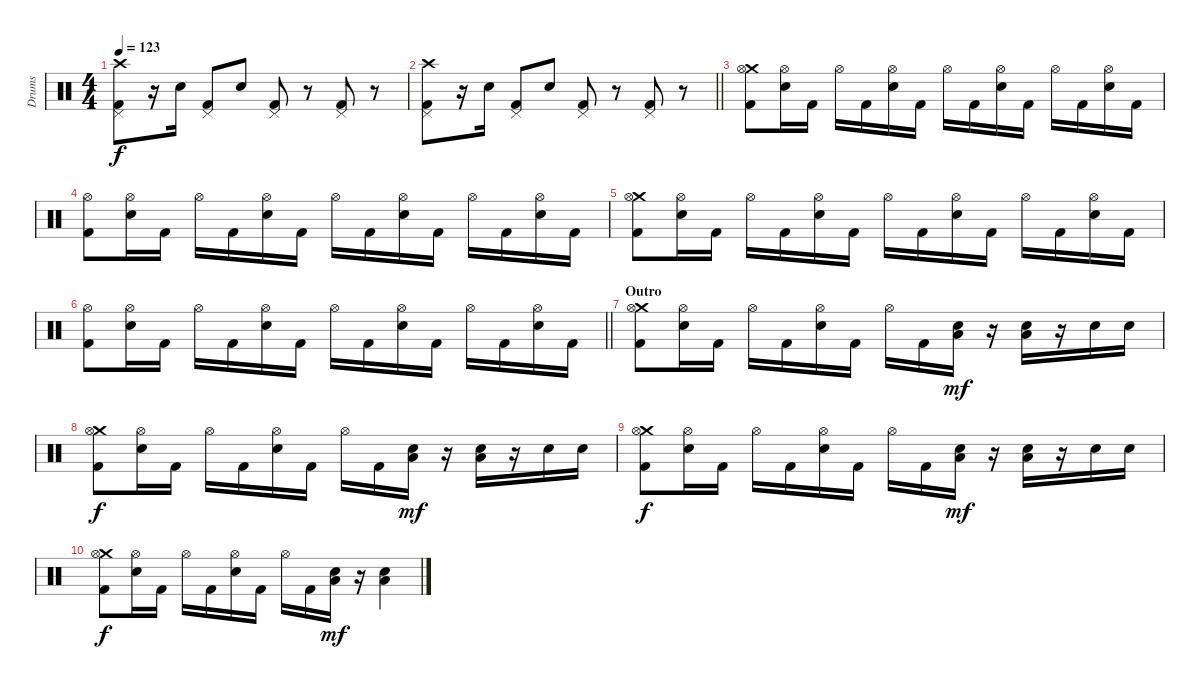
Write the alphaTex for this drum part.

\track ("Drums" "Drums") {instrument percussion}
\staff {score}
\articulation defaults
\ts (4 4)
\tempo 123
\clef neutral
\ks c
("Crash high (hit)" "Pedal Hi-Hat (hit)" "Kick (hit) 2").8{dy f} r.16 "Snare (hit) 2".16 ("Pedal Hi-Hat (hit)" "Kick (hit) 2").8 "Snare (hit) 2".8 ("Pedal Hi-Hat (hit)" "Kick (hit) 2").8 r.8 ("Pedal Hi-Hat (hit)" "Kick (hit) 2").8 r.8 |
\barLineRight lightlight
("Crash high (hit)" "Pedal Hi-Hat (hit)" "Kick (hit) 2").8 r.16 "Snare (hit) 2".16 ("Pedal Hi-Hat (hit)" "Kick (hit) 2").8 "Snare (hit) 2".8 ("Pedal Hi-Hat (hit)" "Kick (hit) 2").8 r.8 ("Pedal Hi-Hat (hit)" "Kick (hit) 2").8 r.8 |
("Crash medium (hit)" "Hi-Hat (open)" "Kick (hit) 2").8 ("Hi-Hat (open)" "Snare (hit) 2").16 "Kick (hit) 2".16 "Hi-Hat (open)".16 "Kick (hit) 2".16 ("Hi-Hat (open)" "Snare (hit) 2").16 "Kick (hit) 2".16 "Hi-Hat (open)".16 "Kick (hit) 2".16 ("Hi-Hat (open)" "Snare (hit) 2").16 "Kick (hit) 2".16 "Hi-Hat (open)".16 "Kick (hit) 2".16 ("Hi-Hat (open)" "Snare (hit) 2").16 "Kick (hit) 2".16 |
("Hi-Hat (open)" "Kick (hit) 2").8 ("Hi-Hat (open)" "Snare (hit) 2").16 "Kick (hit) 2".16 "Hi-Hat (open)".16 "Kick (hit) 2".16 ("Hi-Hat (open)" "Snare (hit) 2").16 "Kick (hit) 2".16 "Hi-Hat (open)".16 "Kick (hit) 2".16 ("Hi-Hat (open)" "Snare (hit) 2").16 "Kick (hit) 2".16 "Hi-Hat (open)".16 "Kick (hit) 2".16 ("Hi-Hat (open)" "Snare (hit) 2").16 "Kick (hit) 2".16 |
("Crash medium (hit)" "Hi-Hat (open)" "Kick (hit) 2").8 ("Hi-Hat (open)" "Snare (hit) 2").16 "Kick (hit) 2".16 "Hi-Hat (open)".16 "Kick (hit) 2".16 ("Hi-Hat (open)" "Snare (hit) 2").16 "Kick (hit) 2".16 "Hi-Hat (open)".16 "Kick (hit) 2".16 ("Hi-Hat (open)" "Snare (hit) 2").16 "Kick (hit) 2".16 "Hi-Hat (open)".16 "Kick (hit) 2".16 ("Hi-Hat (open)" "Snare (hit) 2").16 "Kick (hit) 2".16 |
\barLineRight lightlight
("Hi-Hat (open)" "Kick (hit) 2").8 ("Hi-Hat (open)" "Snare (hit) 2").16 "Kick (hit) 2".16 "Hi-Hat (open)".16 "Kick (hit) 2".16 ("Hi-Hat (open)" "Snare (hit) 2").16 "Kick (hit) 2".16 "Hi-Hat (open)".16 "Kick (hit) 2".16 ("Hi-Hat (open)" "Snare (hit) 2").16 "Kick (hit) 2".16 "Hi-Hat (open)".16 "Kick (hit) 2".16 ("Hi-Hat (open)" "Snare (hit) 2").16 "Kick (hit) 2".16 |
\section ("" "Outro")
("Crash medium (hit)" "Hi-Hat (open)" "Kick (hit) 2").8 ("Hi-Hat (open)" "Snare (hit) 2").16 "Kick (hit) 2".16 "Hi-Hat (open)".16 "Kick (hit) 2".16 ("Hi-Hat (open)" "Snare (hit) 2").16 "Kick (hit) 2".16 "Hi-Hat (open)".16 "Kick (hit) 2".16 ("Low Tom (hit)" "Snare (hit) 2").16{dy mf} r.16 ("Low Tom (hit)" "Snare (hit) 2").16 r.16 "Snare (hit) 2".16 "Snare (hit) 2".16 |
("Crash medium (hit)" "Hi-Hat (open)" "Kick (hit) 2").8{dy f} ("Hi-Hat (open)" "Snare (hit) 2").16 "Kick (hit) 2".16 "Hi-Hat (open)".16 "Kick (hit) 2".16 ("Hi-Hat (open)" "Snare (hit) 2").16 "Kick (hit) 2".16 "Hi-Hat (open)".16 "Kick (hit) 2".16 ("Low Tom (hit)" "Snare (hit) 2").16{dy mf} r.16 ("Low Tom (hit)" "Snare (hit) 2").16 r.16 "Snare (hit) 2".16 "Snare (hit) 2".16 |
("Crash medium (hit)" "Hi-Hat (open)" "Kick (hit) 2").8{dy f} ("Hi-Hat (open)" "Snare (hit) 2").16 "Kick (hit) 2".16 "Hi-Hat (open)".16 "Kick (hit) 2".16 ("Hi-Hat (open)" "Snare (hit) 2").16 "Kick (hit) 2".16 "Hi-Hat (open)".16 "Kick (hit) 2".16 ("Low Tom (hit)" "Snare (hit) 2").16{dy mf} r.16 ("Low Tom (hit)" "Snare (hit) 2").16 r.16 "Snare (hit) 2".16 "Snare (hit) 2".16 |
("Crash medium (hit)" "Hi-Hat (open)" "Kick (hit) 2").8{dy f} ("Hi-Hat (open)" "Snare (hit) 2").16 "Kick (hit) 2".16 "Hi-Hat (open)".16 "Kick (hit) 2".16 ("Hi-Hat (open)" "Snare (hit) 2").16 "Kick (hit) 2".16 "Hi-Hat (open)".16 "Kick (hit) 2".16 ("Low Tom (hit)" "Snare (hit) 2").16{dy mf} r.16 ("Low Tom (hit)" "Snare (hit) 2").4
